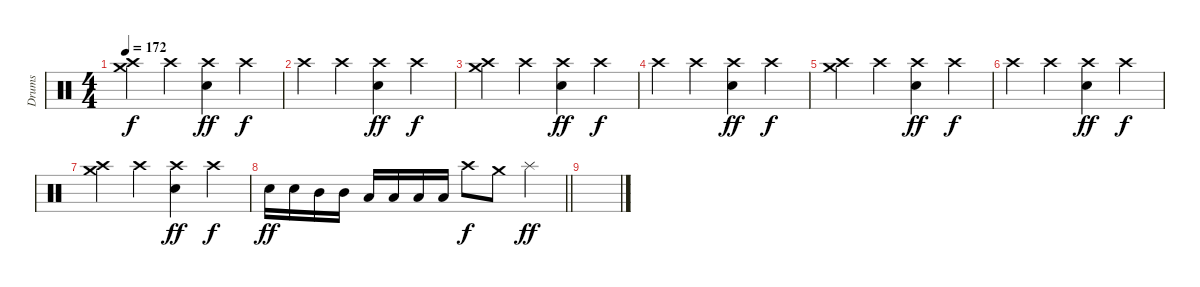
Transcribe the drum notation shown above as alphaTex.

\track ("Drums" "Drums") {instrument percussion}
\staff {score}
\articulation defaults
\ts (4 4)
\tempo 172
\clef neutral
\ks c
("Crash high (hit)" "Crash medium (hit)").4{dy f} "Crash high (hit)".4 ("Crash high (hit)" "Snare (hit) 2").4{dy ff} "Crash high (hit)".4{dy f} |
"Crash high (hit)".4 "Crash high (hit)".4 ("Crash high (hit)" "Snare (hit) 2").4{dy ff} "Crash high (hit)".4{dy f} |
("Crash high (hit)" "Crash medium (hit)").4 "Crash high (hit)".4 ("Crash high (hit)" "Snare (hit) 2").4{dy ff} "Crash high (hit)".4{dy f} |
"Crash high (hit)".4 "Crash high (hit)".4 ("Crash high (hit)" "Snare (hit) 2").4{dy ff} "Crash high (hit)".4{dy f} |
("Crash high (hit)" "Crash medium (hit)").4 "Crash high (hit)".4 ("Crash high (hit)" "Snare (hit) 2").4{dy ff} "Crash high (hit)".4{dy f} |
"Crash high (hit)".4 "Crash high (hit)".4 ("Crash high (hit)" "Snare (hit) 2").4{dy ff} "Crash high (hit)".4{dy f} |
("Crash high (hit)" "Crash medium (hit)").4 "Crash high (hit)".4 ("Crash high (hit)" "Snare (hit) 2").4{dy ff} "Crash high (hit)".4{dy f} |
\barLineRight lightlight "Snare (hit) 2".16{dy ff} "Snare (hit) 2".16 "Mid Tom (hit)".16 "Mid Tom (hit)".16 "Low Tom (hit)".16 "Low Tom (hit)".16 "Low Tom (hit)".16 "Low Tom (hit)".16 "Crash high (hit)".8{dy f} "Crash medium (hit)".8 "Splash (hit)".4{dy ff}
|
\section ("" "")
